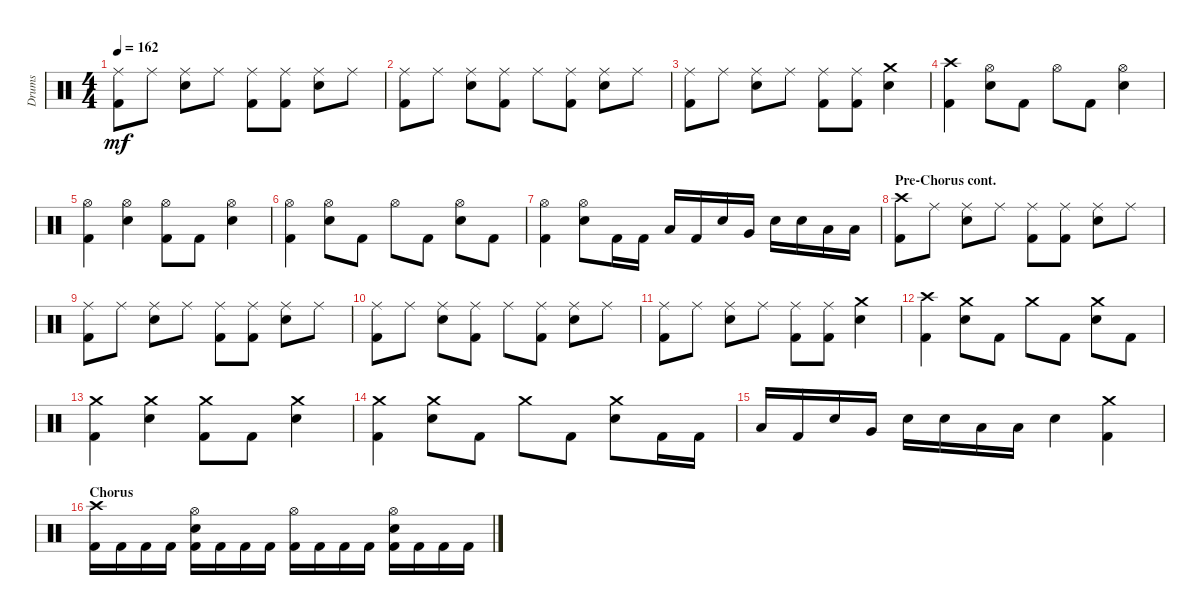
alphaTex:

\track ("Drums" "Drums") {instrument percussion}
\staff {score}
\articulation defaults
\ts (4 4)
\tempo 162
\clef neutral
\ks aminor
("Kick (hit) 2" "Ride (middle)").8{dy mf} "Ride (middle)".8 ("Ride (middle)" "Snare (hit) 2").8 "Ride (middle)".8 ("Ride (middle)" "Kick (hit) 2").8 ("Ride (middle)" "Kick (hit) 2").8 ("Snare (hit) 2" "Ride (middle)").8 "Ride (middle)".8 |
("Ride (middle)" "Kick (hit) 2").8 "Ride (middle)".8 ("Snare (hit) 2" "Ride (middle)").8 ("Ride (middle)" "Kick (hit) 2").8 "Ride (middle)".8 ("Kick (hit) 2" "Ride (middle)").8 ("Ride (middle)" "Snare (hit) 2").8 "Ride (middle)".8 |
("Kick (hit) 2" "Ride (middle)").8 "Ride (middle)".8 ("Ride (middle)" "Snare (hit) 2").8 "Ride (middle)".8 ("Kick (hit) 2" "Ride (middle)").8 ("Kick (hit) 2" "Ride (middle)").8 ("Snare (hit) 2" "Crash medium (hit)").4 |
("Kick (hit) 2" "Crash high (hit)").4 ("Snare (hit) 2" "Hi-Hat (open)").8 "Kick (hit) 2".8 "Hi-Hat (open)".8 "Kick (hit) 2".8 ("Snare (hit) 2" "Hi-Hat (open)").4 |
("Kick (hit) 2" "Hi-Hat (open)").4 ("Snare (hit) 2" "Hi-Hat (open)").4 ("Hi-Hat (open)" "Kick (hit) 2").8 "Kick (hit) 2".8 ("Hi-Hat (open)" "Snare (hit) 2").4 |
("Kick (hit) 2" "Hi-Hat (open)").4 ("Snare (hit) 2" "Hi-Hat (open)").8 "Kick (hit) 2".8 "Hi-Hat (open)".8 "Kick (hit) 2".8 ("Hi-Hat (open)" "Snare (hit) 2").8 "Kick (hit) 2".8 |
("Hi-Hat (open)" "Kick (hit) 2").4 ("Snare (hit) 2" "Hi-Hat (open)").8 "Kick (hit) 2".16 "Kick (hit) 2".16 "Low Tom (hit)".16 "Kick (hit) 2".16 "Snare (hit) 2".16 "Very Low Tom (hit)".16 "Snare (hit) 2".16 "Snare (hit) 2".16 "Low Floor Tom (hit)".16 "Low Floor Tom (hit)".16 |
\section ("" "Pre-Chorus cont.")
("Kick (hit) 2" "Crash high (hit)").8 "Ride (middle)".8 ("Ride (middle)" "Snare (hit) 2").8 "Ride (middle)".8 ("Ride (middle)" "Kick (hit) 2").8 ("Ride (middle)" "Kick (hit) 2").8 ("Snare (hit) 2" "Ride (middle)").8 "Ride (middle)".8 |
("Ride (middle)" "Kick (hit) 2").8 "Ride (middle)".8 ("Ride (middle)" "Snare (hit) 2").8 "Ride (middle)".8 ("Ride (middle)" "Kick (hit) 2").8 ("Kick (hit) 2" "Ride (middle)").8 ("Ride (middle)" "Snare (hit) 2").8 "Ride (middle)".8 |
("Ride (middle)" "Kick (hit) 2").8 "Ride (middle)".8 ("Snare (hit) 2" "Ride (middle)").8 ("Ride (middle)" "Kick (hit) 2").8 "Ride (middle)".8 ("Ride (middle)" "Kick (hit) 2").8 ("Ride (middle)" "Snare (hit) 2").8 "Ride (middle)".8 |
("Ride (middle)" "Kick (hit) 2").8 "Ride (middle)".8 ("Snare (hit) 2" "Ride (middle)").8 "Ride (middle)".8 ("Ride (middle)" "Kick (hit) 2").8 ("Ride (middle)" "Kick (hit) 2").8 ("Snare (hit) 2" "Crash medium (hit)").4 |
("Kick (hit) 2" "Crash high (hit)").4 ("Snare (hit) 2" "Crash medium (hit)").8 "Kick (hit) 2".8 "Crash medium (hit)".8 "Kick (hit) 2".8 ("Snare (hit) 2" "Crash medium (hit)").8 "Kick (hit) 2".8 |
("Kick (hit) 2" "Crash medium (hit)").4 ("Crash medium (hit)" "Snare (hit) 2").4 ("Crash medium (hit)" "Kick (hit) 2").8 "Kick (hit) 2".8 ("Crash medium (hit)" "Snare (hit) 2").4 |
("Kick (hit) 2" "Crash medium (hit)").4 ("Crash medium (hit)" "Snare (hit) 2").8 "Kick (hit) 2".8 "Crash medium (hit)".8 "Kick (hit) 2".8 ("Crash medium (hit)" "Snare (hit) 2").8 "Kick (hit) 2".16 "Kick (hit) 2".16 |
"Low Tom (hit)".16 "Kick (hit) 2".16 "Snare (hit) 2".16 "Very Low Tom (hit)".16 "Snare (hit) 2".16 "Snare (hit) 2".16 "Low Floor Tom (hit)".16 "Low Floor Tom (hit)".16 "Snare (hit) 2".4 ("Kick (hit) 2" "Crash medium (hit)").4 |
\section ("" "Chorus")
("Kick (hit) 2" "Crash high (hit)").16 "Kick (hit) 2".16 "Kick (hit) 2".16 "Kick (hit) 2".16 ("Snare (hit) 2" "Kick (hit) 2" "Hi-Hat (open)").16 "Kick (hit) 2".16 "Kick (hit) 2".16 "Kick (hit) 2".16 ("Hi-Hat (open)" "Kick (hit) 2").16 "Kick (hit) 2".16 "Kick (hit) 2".16 "Kick (hit) 2".16 ("Kick (hit) 2" "Snare (hit) 2" "Hi-Hat (open)").16 "Kick (hit) 2".16 "Kick (hit) 2".16 "Kick (hit) 2".16
